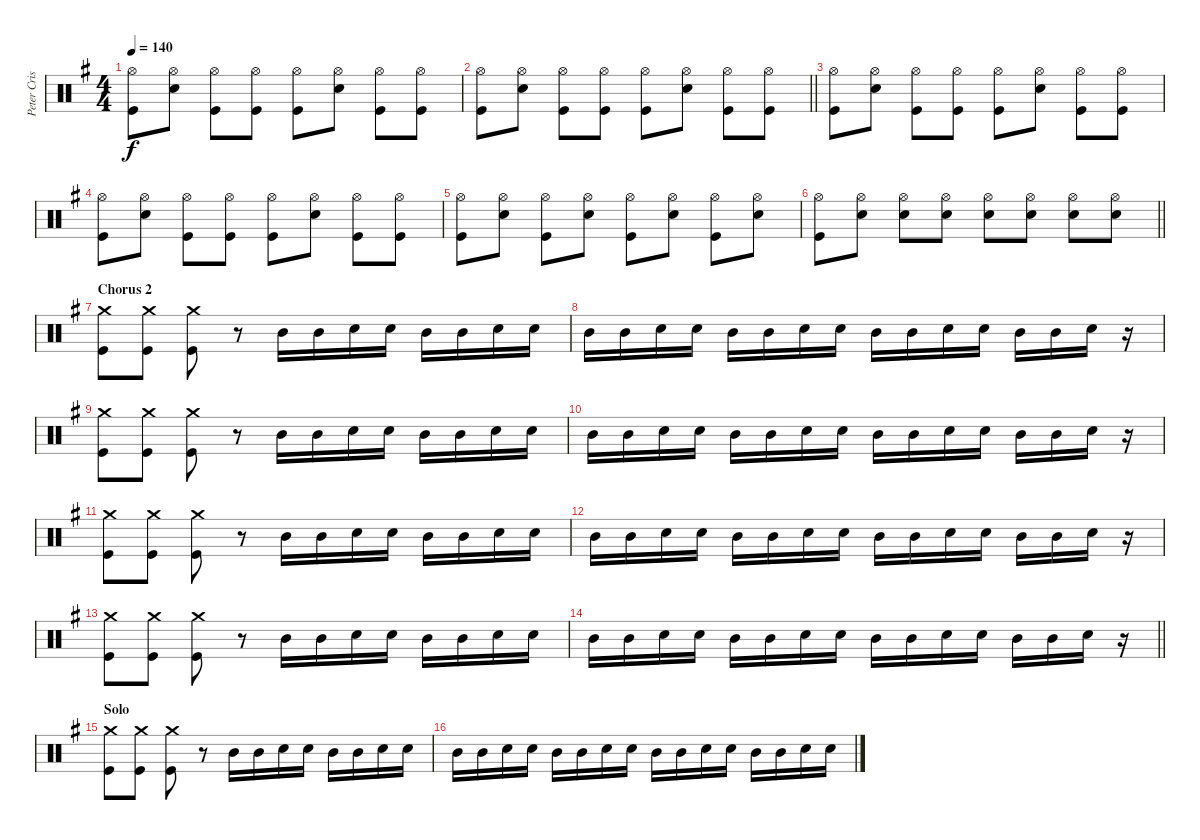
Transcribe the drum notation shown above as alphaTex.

\track ("Peter Criss" "Peter Cris") {instrument percussion}
\staff {score}
\articulation defaults
\ts (4 4)
\tempo 140
\clef neutral
\ks g
("Hi-Hat (open)" "Kick (hit)").8{dy f} ("Hi-Hat (open)" "Snare (hit) 2").8 ("Hi-Hat (open)" "Kick (hit)").8 ("Hi-Hat (open)" "Kick (hit)").8 ("Hi-Hat (open)" "Kick (hit)").8 ("Hi-Hat (open)" "Snare (hit) 2").8 ("Hi-Hat (open)" "Kick (hit)").8 ("Hi-Hat (open)" "Kick (hit)").8 |
\barLineRight lightlight
("Hi-Hat (open)" "Kick (hit)").8 ("Hi-Hat (open)" "Snare (hit) 2").8 ("Hi-Hat (open)" "Kick (hit)").8 ("Hi-Hat (open)" "Kick (hit)").8 ("Hi-Hat (open)" "Kick (hit)").8 ("Hi-Hat (open)" "Snare (hit) 2").8 ("Hi-Hat (open)" "Kick (hit)").8 ("Hi-Hat (open)" "Kick (hit)").8 |
("Hi-Hat (open)" "Kick (hit)").8 ("Hi-Hat (open)" "Snare (hit) 2").8 ("Hi-Hat (open)" "Kick (hit)").8 ("Hi-Hat (open)" "Kick (hit)").8 ("Hi-Hat (open)" "Kick (hit)").8 ("Hi-Hat (open)" "Snare (hit) 2").8 ("Hi-Hat (open)" "Kick (hit)").8 ("Hi-Hat (open)" "Kick (hit)").8 |
("Hi-Hat (open)" "Kick (hit)").8 ("Hi-Hat (open)" "Snare (hit) 2").8 ("Hi-Hat (open)" "Kick (hit)").8 ("Hi-Hat (open)" "Kick (hit)").8 ("Hi-Hat (open)" "Kick (hit)").8 ("Hi-Hat (open)" "Snare (hit) 2").8 ("Hi-Hat (open)" "Kick (hit)").8 ("Hi-Hat (open)" "Kick (hit)").8 |
("Hi-Hat (open)" "Kick (hit)").8 ("Hi-Hat (open)" "Snare (hit) 2").8 ("Hi-Hat (open)" "Kick (hit)").8 ("Hi-Hat (open)" "Snare (hit) 2").8 ("Hi-Hat (open)" "Kick (hit)").8 ("Hi-Hat (open)" "Snare (hit) 2").8 ("Hi-Hat (open)" "Kick (hit)").8 ("Hi-Hat (open)" "Snare (hit) 2").8 |
\barLineRight lightlight
("Hi-Hat (open)" "Kick (hit)").8 ("Hi-Hat (open)" "Snare (hit) 2").8 ("Hi-Hat (open)" "Snare (hit) 2").8 ("Hi-Hat (open)" "Snare (hit) 2").8 ("Hi-Hat (open)" "Snare (hit) 2").8 ("Hi-Hat (open)" "Snare (hit) 2").8 ("Hi-Hat (open)" "Snare (hit) 2").8 ("Hi-Hat (open)" "Snare (hit) 2").8 |
\section ("" "Chorus 2")
("Crash medium (hit)" "Kick (hit)").8 ("Crash medium (hit)" "Kick (hit)").8 ("Crash medium (hit)" "Kick (hit)").8 r.8 "Mid Tom (hit)".16 "Mid Tom (hit)".16 "Snare (hit) 2".16 "Snare (hit) 2".16 "Mid Tom (hit)".16 "Mid Tom (hit)".16 "Snare (hit) 2".16 "Snare (hit) 2".16 |
"Mid Tom (hit)".16 "Mid Tom (hit)".16 "Snare (hit) 2".16 "Snare (hit) 2".16 "Mid Tom (hit)".16 "Mid Tom (hit)".16 "Snare (hit) 2".16 "Snare (hit) 2".16 "Mid Tom (hit)".16 "Mid Tom (hit)".16 "Snare (hit) 2".16 "Snare (hit) 2".16 "Mid Tom (hit)".16 "Mid Tom (hit)".16 "Snare (hit) 2".16 r.16 |
("Crash medium (hit)" "Kick (hit)").8 ("Crash medium (hit)" "Kick (hit)").8 ("Crash medium (hit)" "Kick (hit)").8 r.8 "Mid Tom (hit)".16 "Mid Tom (hit)".16 "Snare (hit) 2".16 "Snare (hit) 2".16 "Mid Tom (hit)".16 "Mid Tom (hit)".16 "Snare (hit) 2".16 "Snare (hit) 2".16 |
"Mid Tom (hit)".16 "Mid Tom (hit)".16 "Snare (hit) 2".16 "Snare (hit) 2".16 "Mid Tom (hit)".16 "Mid Tom (hit)".16 "Snare (hit) 2".16 "Snare (hit) 2".16 "Mid Tom (hit)".16 "Mid Tom (hit)".16 "Snare (hit) 2".16 "Snare (hit) 2".16 "Mid Tom (hit)".16 "Mid Tom (hit)".16 "Snare (hit) 2".16 r.16 |
("Crash medium (hit)" "Kick (hit)").8 ("Crash medium (hit)" "Kick (hit)").8 ("Crash medium (hit)" "Kick (hit)").8 r.8 "Mid Tom (hit)".16 "Mid Tom (hit)".16 "Snare (hit) 2".16 "Snare (hit) 2".16 "Mid Tom (hit)".16 "Mid Tom (hit)".16 "Snare (hit) 2".16 "Snare (hit) 2".16 |
"Mid Tom (hit)".16 "Mid Tom (hit)".16 "Snare (hit) 2".16 "Snare (hit) 2".16 "Mid Tom (hit)".16 "Mid Tom (hit)".16 "Snare (hit) 2".16 "Snare (hit) 2".16 "Mid Tom (hit)".16 "Mid Tom (hit)".16 "Snare (hit) 2".16 "Snare (hit) 2".16 "Mid Tom (hit)".16 "Mid Tom (hit)".16 "Snare (hit) 2".16 r.16 |
("Crash medium (hit)" "Kick (hit)").8 ("Crash medium (hit)" "Kick (hit)").8 ("Crash medium (hit)" "Kick (hit)").8 r.8 "Mid Tom (hit)".16 "Mid Tom (hit)".16 "Snare (hit) 2".16 "Snare (hit) 2".16 "Mid Tom (hit)".16 "Mid Tom (hit)".16 "Snare (hit) 2".16 "Snare (hit) 2".16 |
\barLineRight lightlight "Mid Tom (hit)".16 "Mid Tom (hit)".16 "Snare (hit) 2".16 "Snare (hit) 2".16 "Mid Tom (hit)".16 "Mid Tom (hit)".16 "Snare (hit) 2".16 "Snare (hit) 2".16 "Mid Tom (hit)".16 "Mid Tom (hit)".16 "Snare (hit) 2".16 "Snare (hit) 2".16 "Mid Tom (hit)".16 "Mid Tom (hit)".16 "Snare (hit) 2".16
r.16 |
\section ("" "Solo")
("Crash medium (hit)" "Kick (hit)").8 ("Crash medium (hit)" "Kick (hit)").8 ("Crash medium (hit)" "Kick (hit)").8 r.8 "Mid Tom (hit)".16 "Mid Tom (hit)".16 "Snare (hit) 2".16 "Snare (hit) 2".16 "Mid Tom (hit)".16 "Mid Tom (hit)".16 "Snare (hit) 2".16 "Snare (hit) 2".16 |
"Mid Tom (hit)".16 "Mid Tom (hit)".16 "Snare (hit) 2".16 "Snare (hit) 2".16 "Mid Tom (hit)".16 "Mid Tom (hit)".16 "Snare (hit) 2".16 "Snare (hit) 2".16 "Mid Tom (hit)".16 "Mid Tom (hit)".16 "Snare (hit) 2".16 "Snare (hit) 2".16 "Mid Tom (hit)".16 "Mid Tom (hit)".16 "Snare (hit) 2".16 "Snare (hit) 2".16
